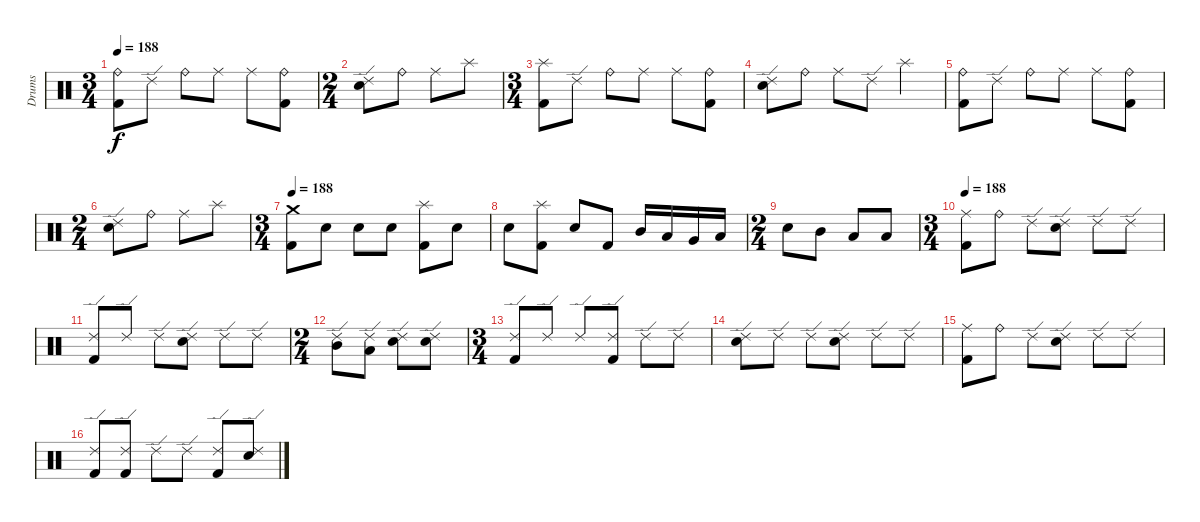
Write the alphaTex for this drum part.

\track ("Drums" "Drums") {instrument percussion}
\staff {score}
\articulation defaults
\ts (3 4)
\tempo 188
\clef neutral
\ks c
("Ride (bell)" "Kick (hit) 2").8{dy f} "Ride (edge) 2".8 "Ride (bell)".8 "Ride (middle)".8 "Ride (middle)".8 ("Ride (bell)" "Kick (hit) 2").8 |
\ts (2 4)
("Electric Snare (hit)" "Ride (edge) 2").8 "Ride (bell)".8 "Ride (middle)".8 "Splash (hit)".8 |
\ts (3 4)
("Splash (hit)" "Kick (hit) 2").8 "Ride (edge) 2".8 "Ride (bell)".8 "Ride (middle)".8 "Ride (middle)".8 ("Ride (bell)" "Kick (hit) 2").8 |
("Electric Snare (hit)" "Ride (edge) 2").8 "Ride (bell)".8 "Ride (middle)".8 "Ride (edge) 2".8 "Splash (hit)".4 |
("Ride (bell)" "Kick (hit) 2").8 "Ride (edge) 2".8 "Ride (bell)".8 "Ride (middle)".8 "Ride (middle)".8 ("Ride (bell)" "Kick (hit) 2").8 |
\ts (2 4)
("Electric Snare (hit)" "Ride (edge) 2").8 "Ride (bell)".8 "Ride (middle)".8 "Splash (hit)".8 |
\ts (3 4)
\tempo 188
("Crash medium (hit)" "Kick (hit) 2").8 "Electric Snare (hit)".8 "Electric Snare (hit)".8 "Electric Snare (hit)".8 ("Splash (hit)" "Kick (hit) 2").8 "Electric Snare (hit)".8 |
"Electric Snare (hit)".8 ("Splash (hit)" "Kick (hit) 2").8 "Electric Snare (hit)".8 "Kick (hit) 2".8 "Mid Tom (hit)".16 "Low Tom (hit)".16 "Very Low Tom (hit)".16 "Low Floor Tom (hit)".16 |
\ts (2 4)
"Electric Snare (hit)".8 "Mid Tom (hit)".8 "Low Tom (hit)".8 "Low Tom (hit)".8 |
\ts (3 4)
\tempo 188
("Ride (middle)" "Kick (hit) 2").8 "Ride (bell)".8 "Ride (edge) 2".8 ("Electric Snare (hit)" "Ride (edge) 2").8 "Ride (edge) 2".8 "Ride (edge) 2".8 |
("Ride (edge) 2" "Kick (hit) 2").8 "Ride (edge) 2".8 "Ride (edge) 2".8 ("Electric Snare (hit)" "Ride (edge) 2").8 "Ride (edge) 2".8 "Ride (edge) 2".8 |
\ts (2 4)
("Ride (edge) 2" "Mid Tom (hit)").8 ("Ride (edge) 2" "Low Tom (hit)").8 ("Electric Snare (hit)" "Ride (edge) 2").8 ("Electric Snare (hit)" "Ride (edge) 2").8 |
\ts (3 4)
("Ride (edge) 2" "Kick (hit) 2").8 "Ride (edge) 2".8 "Ride (edge) 2".8 ("Ride (edge) 2" "Kick (hit) 2").8 "Ride (edge) 2".8 "Ride (edge) 2".8 |
("Electric Snare (hit)" "Ride (edge) 2").8 "Ride (edge) 2".8 "Ride (edge) 2".8 ("Electric Snare (hit)" "Ride (edge) 2").8 "Ride (edge) 2".8 "Ride (edge) 2".8 |
("Ride (middle)" "Kick (hit) 2").8 "Ride (bell)".8 "Ride (edge) 2".8 ("Electric Snare (hit)" "Ride (edge) 2").8 "Ride (edge) 2".8 "Ride (edge) 2".8 |
("Ride (edge) 2" "Kick (hit) 2").8 ("Ride (edge) 2" "Kick (hit) 2").8 "Ride (edge) 2".8 "Ride (edge) 2".8 ("Ride (edge) 2" "Kick (hit) 2").8 ("Electric Snare (hit)" "Ride (edge) 2").8
